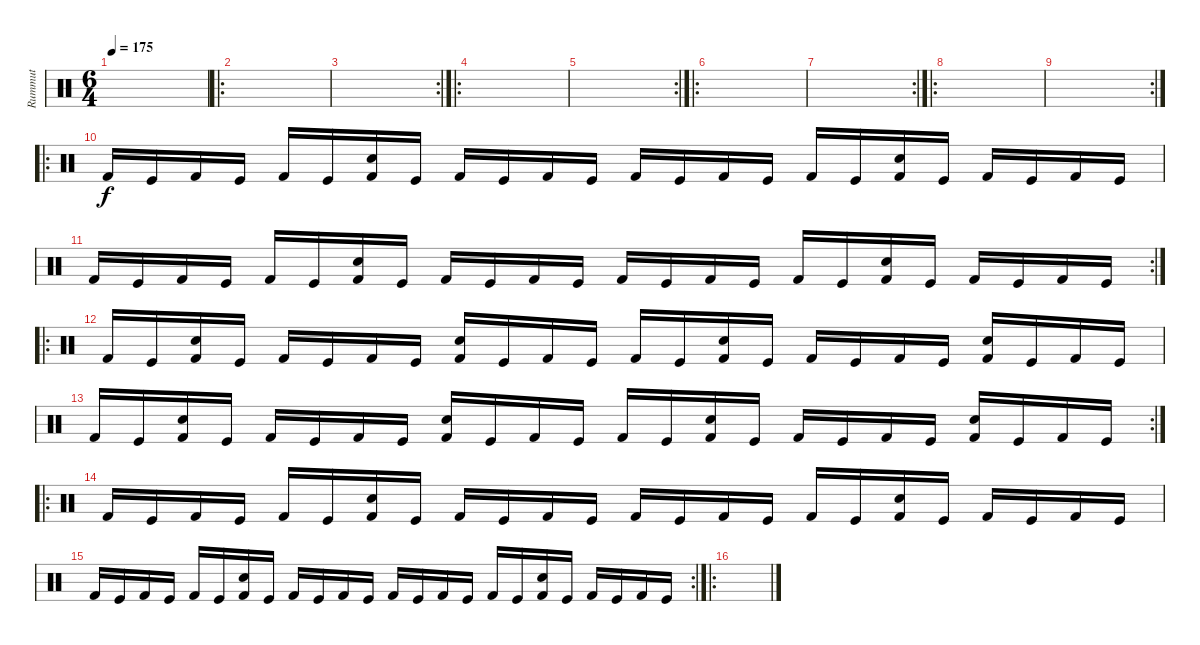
\track ("Rummut" "Rummut") {instrument percussion}
\staff {score}
\articulation defaults
\ts (6 4)
\tempo 175
\clef neutral
\ks c
|
\ro
|
\rc 2
|
\ro
|
\rc 2
|
\ro
|
\rc 2
|
\ro
|
\rc 2
|
\ro "Kick (hit) 2".16 "Kick (hit)".16 "Kick (hit) 2".16 "Kick (hit)".16 "Kick (hit) 2".16 "Kick (hit)".16
("Snare (hit) 2" "Kick (hit) 2").16 "Kick (hit)".16 "Kick (hit) 2".16 "Kick (hit)".16 "Kick (hit) 2".16 "Kick (hit)".16 "Kick (hit) 2".16 "Kick (hit)".16 "Kick (hit) 2".16 "Kick (hit)".16 "Kick (hit) 2".16 "Kick (hit)".16 ("Snare (hit) 2" "Kick (hit) 2").16 "Kick (hit)".16 "Kick (hit) 2".16 "Kick (hit)".16 "Kick (hit) 2".16 "Kick (hit)".16 |
\rc 2 "Kick (hit) 2".16 "Kick (hit)".16 "Kick (hit) 2".16 "Kick (hit)".16 "Kick (hit) 2".16 "Kick (hit)".16
("Snare (hit) 2" "Kick (hit) 2").16 "Kick (hit)".16 "Kick (hit) 2".16 "Kick (hit)".16 "Kick (hit) 2".16 "Kick (hit)".16 "Kick (hit) 2".16 "Kick (hit)".16 "Kick (hit) 2".16 "Kick (hit)".16 "Kick (hit) 2".16 "Kick (hit)".16 ("Snare (hit) 2" "Kick (hit) 2").16 "Kick (hit)".16 "Kick (hit) 2".16 "Kick (hit)".16 "Kick (hit) 2".16 "Kick (hit)".16 |
\ro "Kick (hit) 2".16 "Kick (hit)".16
("Snare (hit) 2" "Kick (hit) 2").16 "Kick (hit)".16 "Kick (hit) 2".16 "Kick (hit)".16 "Kick (hit) 2".16 "Kick (hit)".16 ("Snare (hit) 2" "Kick (hit) 2").16 "Kick (hit)".16 "Kick (hit) 2".16 "Kick (hit)".16 "Kick (hit) 2".16 "Kick (hit)".16 ("Snare (hit) 2" "Kick (hit) 2").16 "Kick (hit)".16 "Kick (hit) 2".16 "Kick (hit)".16 "Kick (hit) 2".16 "Kick (hit)".16 ("Snare (hit) 2" "Kick (hit) 2").16 "Kick (hit)".16 "Kick (hit) 2".16 "Kick (hit)".16 |
\rc 2 "Kick (hit) 2".16 "Kick (hit)".16
("Snare (hit) 2" "Kick (hit) 2").16 "Kick (hit)".16 "Kick (hit) 2".16 "Kick (hit)".16 "Kick (hit) 2".16 "Kick (hit)".16 ("Snare (hit) 2" "Kick (hit) 2").16 "Kick (hit)".16 "Kick (hit) 2".16 "Kick (hit)".16 "Kick (hit) 2".16 "Kick (hit)".16 ("Snare (hit) 2" "Kick (hit) 2").16 "Kick (hit)".16 "Kick (hit) 2".16 "Kick (hit)".16 "Kick (hit) 2".16 "Kick (hit)".16 ("Snare (hit) 2" "Kick (hit) 2").16 "Kick (hit)".16 "Kick (hit) 2".16 "Kick (hit)".16 |
\ro "Kick (hit) 2".16 "Kick (hit)".16 "Kick (hit) 2".16 "Kick (hit)".16 "Kick (hit) 2".16 "Kick (hit)".16
("Snare (hit) 2" "Kick (hit) 2").16 "Kick (hit)".16 "Kick (hit) 2".16 "Kick (hit)".16 "Kick (hit) 2".16 "Kick (hit)".16 "Kick (hit) 2".16 "Kick (hit)".16 "Kick (hit) 2".16 "Kick (hit)".16 "Kick (hit) 2".16 "Kick (hit)".16 ("Snare (hit) 2" "Kick (hit) 2").16 "Kick (hit)".16 "Kick (hit) 2".16 "Kick (hit)".16 "Kick (hit) 2".16 "Kick (hit)".16 |
\rc 2 "Kick (hit) 2".16 "Kick (hit)".16 "Kick (hit) 2".16 "Kick (hit)".16 "Kick (hit) 2".16 "Kick (hit)".16
("Snare (hit) 2" "Kick (hit) 2").16 "Kick (hit)".16 "Kick (hit) 2".16 "Kick (hit)".16 "Kick (hit) 2".16 "Kick (hit)".16 "Kick (hit) 2".16 "Kick (hit)".16 "Kick (hit) 2".16 "Kick (hit)".16 "Kick (hit) 2".16 "Kick (hit)".16 ("Snare (hit) 2" "Kick (hit) 2").16 "Kick (hit)".16 "Kick (hit) 2".16 "Kick (hit)".16 "Kick (hit) 2".16 "Kick (hit)".16 |
\ro
